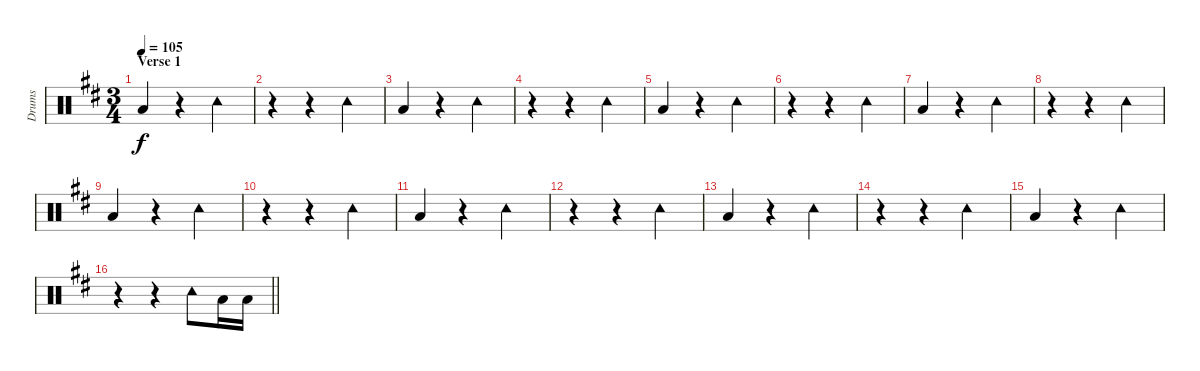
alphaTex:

\track ("Drums" "Drums") {instrument percussion}
\staff {score}
\articulation defaults
\ts (3 4)
\section ("" "Verse 1")
\tempo 105
\clef neutral
\ks d "Low Floor Tom (hit)".4{dy f}
r.4 "Tambourine (hit)".4 |
r.4 r.4 "Tambourine (hit)".4 |
"Low Floor Tom (hit)".4 r.4 "Tambourine (hit)".4 |
r.4 r.4 "Tambourine (hit)".4 |
"Low Floor Tom (hit)".4 r.4 "Tambourine (hit)".4 |
r.4 r.4 "Tambourine (hit)".4 |
"Low Floor Tom (hit)".4 r.4 "Tambourine (hit)".4 |
r.4 r.4 "Tambourine (hit)".4 |
"Low Floor Tom (hit)".4 r.4 "Tambourine (hit)".4 |
r.4 r.4 "Tambourine (hit)".4 |
"Low Floor Tom (hit)".4 r.4 "Tambourine (hit)".4 |
r.4 r.4 "Tambourine (hit)".4 |
"Low Floor Tom (hit)".4 r.4 "Tambourine (hit)".4 |
r.4 r.4 "Tambourine (hit)".4 |
"Low Floor Tom (hit)".4 r.4 "Tambourine (hit)".4 |
\barLineRight lightlight
r.4 r.4 "Tambourine (hit)".8 "Low Tom (hit)".16 "Low Tom (hit)".16
